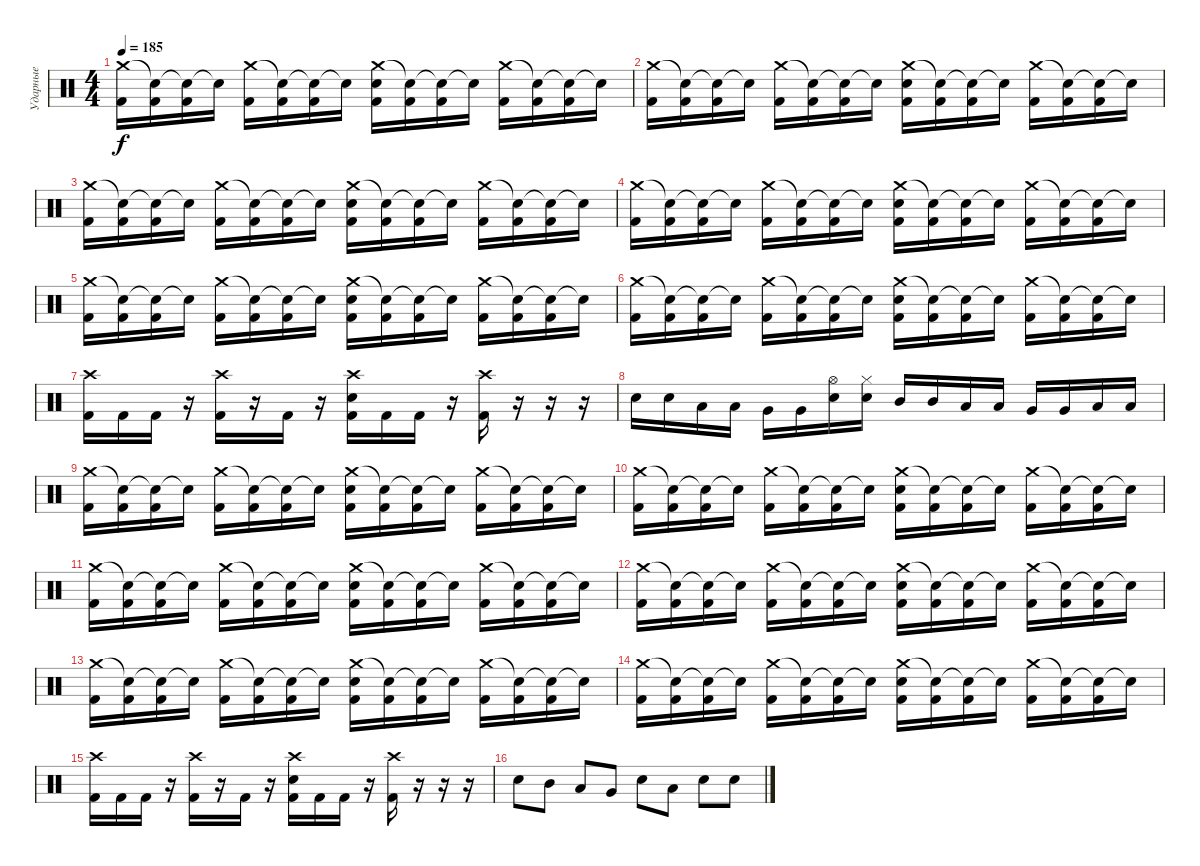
\track ("Ударные" "Ударные") {instrument percussion}
\staff {score}
\articulation defaults
\ts (4 4)
\tempo 185
\clef neutral
\ks c
("Crash medium (hit)" "Kick (hit) 2").16{dy f} ("Snare (hit)"{t} "Kick (hit) 2").16 ("Snare (hit)"{t} "Kick (hit) 2").16 "Snare (hit)"{t}.16 ("Crash medium (hit)" "Kick (hit) 2").16 ("Snare (hit)"{t} "Kick (hit) 2").16 ("Snare (hit)"{t} "Kick (hit) 2").16 "Snare (hit)"{t}.16 ("Crash medium (hit)" "Electric Snare (hit)" "Kick (hit) 2").16 ("Snare (hit)"{t} "Kick (hit) 2").16 ("Snare (hit)"{t} "Kick (hit) 2").16 "Snare (hit)"{t}.16 ("Crash medium (hit)" "Kick (hit) 2").16 ("Snare (hit)"{t} "Kick (hit) 2").16 ("Snare (hit)"{t} "Kick (hit) 2").16 "Snare (hit)"{t}.16 |
("Crash medium (hit)" "Kick (hit) 2").16 ("Snare (hit)"{t} "Kick (hit) 2").16 ("Snare (hit)"{t} "Kick (hit) 2").16 "Snare (hit)"{t}.16 ("Crash medium (hit)" "Kick (hit) 2").16 ("Snare (hit)"{t} "Kick (hit) 2").16 ("Snare (hit)"{t} "Kick (hit) 2").16 "Snare (hit)"{t}.16 ("Crash medium (hit)" "Electric Snare (hit)" "Kick (hit) 2").16 ("Snare (hit)"{t} "Kick (hit) 2").16 ("Snare (hit)"{t} "Kick (hit) 2").16 "Snare (hit)"{t}.16 ("Crash medium (hit)" "Kick (hit) 2").16 ("Snare (hit)"{t} "Kick (hit) 2").16 ("Snare (hit)"{t} "Kick (hit) 2").16 "Snare (hit)"{t}.16 |
("Crash medium (hit)" "Kick (hit) 2").16 ("Snare (hit)"{t} "Kick (hit) 2").16 ("Snare (hit)"{t} "Kick (hit) 2").16 "Snare (hit)"{t}.16 ("Crash medium (hit)" "Kick (hit) 2").16 ("Snare (hit)"{t} "Kick (hit) 2").16 ("Snare (hit)"{t} "Kick (hit) 2").16 "Snare (hit)"{t}.16 ("Crash medium (hit)" "Electric Snare (hit)" "Kick (hit) 2").16 ("Snare (hit)"{t} "Kick (hit) 2").16 ("Snare (hit)"{t} "Kick (hit) 2").16 "Snare (hit)"{t}.16 ("Crash medium (hit)" "Kick (hit) 2").16 ("Snare (hit)"{t} "Kick (hit) 2").16 ("Snare (hit)"{t} "Kick (hit) 2").16 "Snare (hit)"{t}.16 |
("Crash medium (hit)" "Kick (hit) 2").16 ("Snare (hit)"{t} "Kick (hit) 2").16 ("Snare (hit)"{t} "Kick (hit) 2").16 "Snare (hit)"{t}.16 ("Crash medium (hit)" "Kick (hit) 2").16 ("Snare (hit)"{t} "Kick (hit) 2").16 ("Snare (hit)"{t} "Kick (hit) 2").16 "Snare (hit)"{t}.16 ("Crash medium (hit)" "Electric Snare (hit)" "Kick (hit) 2").16 ("Snare (hit)"{t} "Kick (hit) 2").16 ("Snare (hit)"{t} "Kick (hit) 2").16 "Snare (hit)"{t}.16 ("Crash medium (hit)" "Kick (hit) 2").16 ("Snare (hit)"{t} "Kick (hit) 2").16 ("Snare (hit)"{t} "Kick (hit) 2").16 "Snare (hit)"{t}.16 |
("Crash medium (hit)" "Kick (hit) 2").16 ("Snare (hit)"{t} "Kick (hit) 2").16 ("Snare (hit)"{t} "Kick (hit) 2").16 "Snare (hit)"{t}.16 ("Crash medium (hit)" "Kick (hit) 2").16 ("Snare (hit)"{t} "Kick (hit) 2").16 ("Snare (hit)"{t} "Kick (hit) 2").16 "Snare (hit)"{t}.16 ("Crash medium (hit)" "Electric Snare (hit)" "Kick (hit) 2").16 ("Snare (hit)"{t} "Kick (hit) 2").16 ("Snare (hit)"{t} "Kick (hit) 2").16 "Snare (hit)"{t}.16 ("Crash medium (hit)" "Kick (hit) 2").16 ("Snare (hit)"{t} "Kick (hit) 2").16 ("Snare (hit)"{t} "Kick (hit) 2").16 "Snare (hit)"{t}.16 |
("Crash medium (hit)" "Kick (hit) 2").16 ("Snare (hit)"{t} "Kick (hit) 2").16 ("Snare (hit)"{t} "Kick (hit) 2").16 "Snare (hit)"{t}.16 ("Crash medium (hit)" "Kick (hit) 2").16 ("Snare (hit)"{t} "Kick (hit) 2").16 ("Snare (hit)"{t} "Kick (hit) 2").16 "Snare (hit)"{t}.16 ("Crash medium (hit)" "Electric Snare (hit)" "Kick (hit) 2").16 ("Snare (hit)"{t} "Kick (hit) 2").16 ("Snare (hit)"{t} "Kick (hit) 2").16 "Snare (hit)"{t}.16 ("Crash medium (hit)" "Kick (hit) 2").16 ("Snare (hit)"{t} "Kick (hit) 2").16 ("Snare (hit)"{t} "Kick (hit) 2").16 "Snare (hit)"{t}.16 |
("Crash high (hit)" "Kick (hit) 2").16 "Kick (hit) 2".16 "Kick (hit) 2".16 r.16 ("Crash high (hit)" "Kick (hit) 2").16 r.16 "Kick (hit) 2".16 r.16 ("Crash high (hit)" "Electric Snare (hit)" "Kick (hit) 2").16 "Kick (hit) 2".16 "Kick (hit) 2".16 r.16 ("Crash high (hit)" "Kick (hit) 2").16 r.16 r.16 r.16 |
"Electric Snare (hit)".16 "Electric Snare (hit)".16 "Low Tom (hit)".16 "Low Tom (hit)".16 "Very Low Tom (hit)".16 "Very Low Tom (hit)".16 ("Hi-Hat (open)" "Electric Snare (hit)").16 ("Hi-Hat (closed)" "Electric Snare (hit)").16 "Mid Tom (hit)".16 "Mid Tom (hit)".16 "Low Tom (hit)".16 "Low Tom (hit)".16 "Very Low Tom (hit)".16 "Very Low Tom (hit)".16 "Low Floor Tom (hit)".16 "Low Floor Tom (hit)".16 |
("Crash medium (hit)" "Kick (hit) 2").16 ("Snare (hit)"{t} "Kick (hit) 2").16 ("Snare (hit)"{t} "Kick (hit) 2").16 "Snare (hit)"{t}.16 ("Crash medium (hit)" "Kick (hit) 2").16 ("Snare (hit)"{t} "Kick (hit) 2").16 ("Snare (hit)"{t} "Kick (hit) 2").16 "Snare (hit)"{t}.16 ("Crash medium (hit)" "Electric Snare (hit)" "Kick (hit) 2").16 ("Snare (hit)"{t} "Kick (hit) 2").16 ("Snare (hit)"{t} "Kick (hit) 2").16 "Snare (hit)"{t}.16 ("Crash medium (hit)" "Kick (hit) 2").16 ("Snare (hit)"{t} "Kick (hit) 2").16 ("Snare (hit)"{t} "Kick (hit) 2").16 "Snare (hit)"{t}.16 |
("Crash medium (hit)" "Kick (hit) 2").16 ("Snare (hit)"{t} "Kick (hit) 2").16 ("Snare (hit)"{t} "Kick (hit) 2").16 "Snare (hit)"{t}.16 ("Crash medium (hit)" "Kick (hit) 2").16 ("Snare (hit)"{t} "Kick (hit) 2").16 ("Snare (hit)"{t} "Kick (hit) 2").16 "Snare (hit)"{t}.16 ("Crash medium (hit)" "Electric Snare (hit)" "Kick (hit) 2").16 ("Snare (hit)"{t} "Kick (hit) 2").16 ("Snare (hit)"{t} "Kick (hit) 2").16 "Snare (hit)"{t}.16 ("Crash medium (hit)" "Kick (hit) 2").16 ("Snare (hit)"{t} "Kick (hit) 2").16 ("Snare (hit)"{t} "Kick (hit) 2").16 "Snare (hit)"{t}.16 |
("Crash medium (hit)" "Kick (hit) 2").16 ("Snare (hit)"{t} "Kick (hit) 2").16 ("Snare (hit)"{t} "Kick (hit) 2").16 "Snare (hit)"{t}.16 ("Crash medium (hit)" "Kick (hit) 2").16 ("Snare (hit)"{t} "Kick (hit) 2").16 ("Snare (hit)"{t} "Kick (hit) 2").16 "Snare (hit)"{t}.16 ("Crash medium (hit)" "Electric Snare (hit)" "Kick (hit) 2").16 ("Snare (hit)"{t} "Kick (hit) 2").16 ("Snare (hit)"{t} "Kick (hit) 2").16 "Snare (hit)"{t}.16 ("Crash medium (hit)" "Kick (hit) 2").16 ("Snare (hit)"{t} "Kick (hit) 2").16 ("Snare (hit)"{t} "Kick (hit) 2").16 "Snare (hit)"{t}.16 |
("Crash medium (hit)" "Kick (hit) 2").16 ("Snare (hit)"{t} "Kick (hit) 2").16 ("Snare (hit)"{t} "Kick (hit) 2").16 "Snare (hit)"{t}.16 ("Crash medium (hit)" "Kick (hit) 2").16 ("Snare (hit)"{t} "Kick (hit) 2").16 ("Snare (hit)"{t} "Kick (hit) 2").16 "Snare (hit)"{t}.16 ("Crash medium (hit)" "Electric Snare (hit)" "Kick (hit) 2").16 ("Snare (hit)"{t} "Kick (hit) 2").16 ("Snare (hit)"{t} "Kick (hit) 2").16 "Snare (hit)"{t}.16 ("Crash medium (hit)" "Kick (hit) 2").16 ("Snare (hit)"{t} "Kick (hit) 2").16 ("Snare (hit)"{t} "Kick (hit) 2").16 "Snare (hit)"{t}.16 |
("Crash medium (hit)" "Kick (hit) 2").16 ("Snare (hit)"{t} "Kick (hit) 2").16 ("Snare (hit)"{t} "Kick (hit) 2").16 "Snare (hit)"{t}.16 ("Crash medium (hit)" "Kick (hit) 2").16 ("Snare (hit)"{t} "Kick (hit) 2").16 ("Snare (hit)"{t} "Kick (hit) 2").16 "Snare (hit)"{t}.16 ("Crash medium (hit)" "Electric Snare (hit)" "Kick (hit) 2").16 ("Snare (hit)"{t} "Kick (hit) 2").16 ("Snare (hit)"{t} "Kick (hit) 2").16 "Snare (hit)"{t}.16 ("Crash medium (hit)" "Kick (hit) 2").16 ("Snare (hit)"{t} "Kick (hit) 2").16 ("Snare (hit)"{t} "Kick (hit) 2").16 "Snare (hit)"{t}.16 |
("Crash medium (hit)" "Kick (hit) 2").16 ("Snare (hit)"{t} "Kick (hit) 2").16 ("Snare (hit)"{t} "Kick (hit) 2").16 "Snare (hit)"{t}.16 ("Crash medium (hit)" "Kick (hit) 2").16 ("Snare (hit)"{t} "Kick (hit) 2").16 ("Snare (hit)"{t} "Kick (hit) 2").16 "Snare (hit)"{t}.16 ("Crash medium (hit)" "Electric Snare (hit)" "Kick (hit) 2").16 ("Snare (hit)"{t} "Kick (hit) 2").16 ("Snare (hit)"{t} "Kick (hit) 2").16 "Snare (hit)"{t}.16 ("Crash medium (hit)" "Kick (hit) 2").16 ("Snare (hit)"{t} "Kick (hit) 2").16 ("Snare (hit)"{t} "Kick (hit) 2").16 "Snare (hit)"{t}.16 |
("Crash high (hit)" "Kick (hit) 2").16 "Kick (hit) 2".16 "Kick (hit) 2".16 r.16 ("Crash high (hit)" "Kick (hit) 2").16 r.16 "Kick (hit) 2".16 r.16 ("Crash high (hit)" "Electric Snare (hit)" "Kick (hit) 2").16 "Kick (hit) 2".16 "Kick (hit) 2".16 r.16 ("Crash high (hit)" "Kick (hit) 2").16 r.16 r.16 r.16 |
"Electric Snare (hit)".8 "Mid Tom (hit)".8 "Low Tom (hit)".8 "Very Low Tom (hit)".8 "Electric Snare (hit)".8 "Low Tom (hit)".8 "Electric Snare (hit)".8 "Electric Snare (hit)".8
